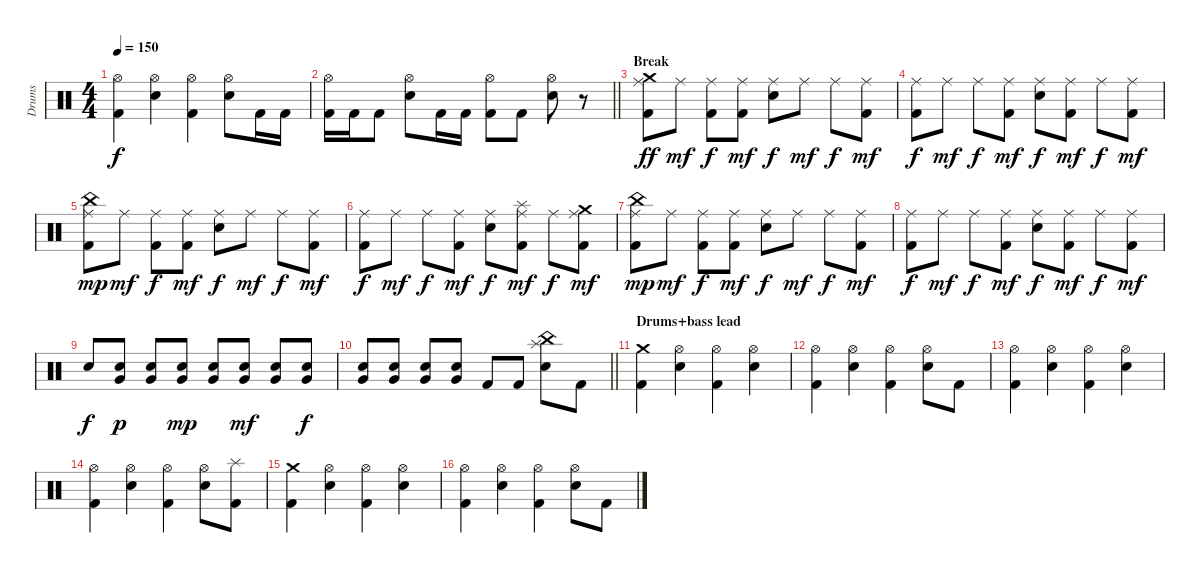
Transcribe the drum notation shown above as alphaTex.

\track ("Drums" "Drums") {instrument percussion}
\staff {score}
\articulation defaults
\ts (4 4)
\tempo 150
\clef neutral
\ks c
("Hi-Hat (open)" "Kick (hit) 2").4{dy f} ("Hi-Hat (open)" "Electric Snare (hit)").4 ("Hi-Hat (open)" "Kick (hit) 2").4 ("Hi-Hat (open)" "Electric Snare (hit)").8 "Kick (hit) 2".16 "Kick (hit) 2".16 |
\barLineRight lightlight
("Hi-Hat (open)" "Kick (hit) 2").16 "Kick (hit) 2".16 "Kick (hit) 2".8 ("Hi-Hat (open)" "Electric Snare (hit)").8 "Kick (hit) 2".16 "Kick (hit) 2".16 ("Hi-Hat (open)" "Kick (hit) 2").8 "Kick (hit) 2".8 ("Hi-Hat (open)" "Electric Snare (hit)").8 r.8 |
\section ("" "Break")
("Crash medium (hit)" "Ride (middle)" "Kick (hit) 2").8{dy ff} "Ride (middle)".8{dy mf} ("Ride (middle)" "Kick (hit) 2").8{dy f} ("Ride (middle)" "Kick (hit) 2").8{dy mf} ("Ride (middle)" "Electric Snare (hit)").8{dy f} "Ride (middle)".8{dy mf} "Ride (middle)".8{dy f} ("Ride (middle)" "Kick (hit) 2").8{dy mf} |
("Ride (middle)" "Kick (hit) 2").8{dy f} "Ride (middle)".8{dy mf} "Ride (middle)".8{dy f} ("Ride (middle)" "Kick (hit) 2").8{dy mf} ("Ride (middle)" "Electric Snare (hit)").8{dy f} ("Ride (middle)" "Kick (hit) 2").8{dy mf} "Ride (middle)".8{dy f} ("Ride (middle)" "Kick (hit) 2").8{dy mf} |
("China (hit)" "Ride (middle)" "Kick (hit) 2").8{dy mp} "Ride (middle)".8{dy mf} ("Ride (middle)" "Kick (hit) 2").8{dy f} ("Ride (middle)" "Kick (hit) 2").8{dy mf} ("Ride (middle)" "Electric Snare (hit)").8{dy f} "Ride (middle)".8{dy mf} "Ride (middle)".8{dy f} ("Ride (middle)" "Kick (hit) 2").8{dy mf} |
("Ride (middle)" "Kick (hit) 2").8{dy f} "Ride (middle)".8{dy mf} "Ride (middle)".8{dy f} ("Ride (middle)" "Kick (hit) 2").8{dy mf} ("Ride (middle)" "Electric Snare (hit)").8{dy f} ("Splash (hit)" "Ride (middle)" "Kick (hit) 2").8{dy mf} "Ride (middle)".8{dy f} ("Crash medium (hit)" "Ride (middle)" "Kick (hit) 2").8{dy mf} |
("China (hit)" "Ride (middle)" "Kick (hit) 2").8{dy mp} "Ride (middle)".8{dy mf} ("Ride (middle)" "Kick (hit) 2").8{dy f} ("Ride (middle)" "Kick (hit) 2").8{dy mf} ("Ride (middle)" "Electric Snare (hit)").8{dy f} "Ride (middle)".8{dy mf} "Ride (middle)".8{dy f} ("Ride (middle)" "Kick (hit) 2").8{dy mf} |
("Ride (middle)" "Kick (hit) 2").8{dy f} "Ride (middle)".8{dy mf} "Ride (middle)".8{dy f} ("Ride (middle)" "Kick (hit) 2").8{dy mf} ("Ride (middle)" "Electric Snare (hit)").8{dy f} ("Ride (middle)" "Kick (hit) 2").8{dy mf} "Ride (middle)".8{dy f} ("Ride (middle)" "Kick (hit) 2").8{dy mf} |
"Electric Snare (hit)".8{dy f} ("Very Low Tom (hit)" "Electric Snare (hit)").8{dy p} ("Very Low Tom (hit)" "Electric Snare (hit)").8 ("Very Low Tom (hit)" "Electric Snare (hit)").8{dy mp} ("Very Low Tom (hit)" "Electric Snare (hit)").8 ("Very Low Tom (hit)" "Electric Snare (hit)").8{dy mf} ("Very Low Tom (hit)" "Electric Snare (hit)").8 ("Very Low Tom (hit)" "Electric Snare (hit)").8{dy f} |
\barLineRight lightlight
("Very Low Tom (hit)" "Electric Snare (hit)").8 ("Very Low Tom (hit)" "Electric Snare (hit)").8 ("Very Low Tom (hit)" "Electric Snare (hit)").8 ("Very Low Tom (hit)" "Electric Snare (hit)").8 "Kick (hit) 2".8 "Kick (hit) 2".8 ("Splash (hit)" "China (hit)" "Electric Snare (hit)").8 "Kick (hit) 2".8 |
\section ("" "Drums+bass lead")
("Crash medium (hit)" "Kick (hit) 2").4 ("Hi-Hat (open)" "Electric Snare (hit)").4 ("Hi-Hat (open)" "Kick (hit) 2").4 ("Hi-Hat (open)" "Electric Snare (hit)").4 |
("Hi-Hat (open)" "Kick (hit) 2").4 ("Hi-Hat (open)" "Electric Snare (hit)").4 ("Hi-Hat (open)" "Kick (hit) 2").4 ("Hi-Hat (open)" "Electric Snare (hit)").8 "Kick (hit) 2".8 |
("Hi-Hat (open)" "Kick (hit) 2").4 ("Hi-Hat (open)" "Electric Snare (hit)").4 ("Hi-Hat (open)" "Kick (hit) 2").4 ("Hi-Hat (open)" "Electric Snare (hit)").4 |
("Hi-Hat (open)" "Kick (hit) 2").4 ("Hi-Hat (open)" "Electric Snare (hit)").4 ("Hi-Hat (open)" "Kick (hit) 2").4 ("Hi-Hat (open)" "Electric Snare (hit)").8 ("Splash (hit)" "Kick (hit) 2").8 |
("Crash medium (hit)" "Kick (hit) 2").4 ("Hi-Hat (open)" "Electric Snare (hit)").4 ("Hi-Hat (open)" "Kick (hit) 2").4 ("Hi-Hat (open)" "Electric Snare (hit)").4 |
("Hi-Hat (open)" "Kick (hit) 2").4 ("Hi-Hat (open)" "Electric Snare (hit)").4 ("Hi-Hat (open)" "Kick (hit) 2").4 ("Hi-Hat (open)" "Electric Snare (hit)").8 "Kick (hit) 2".8
